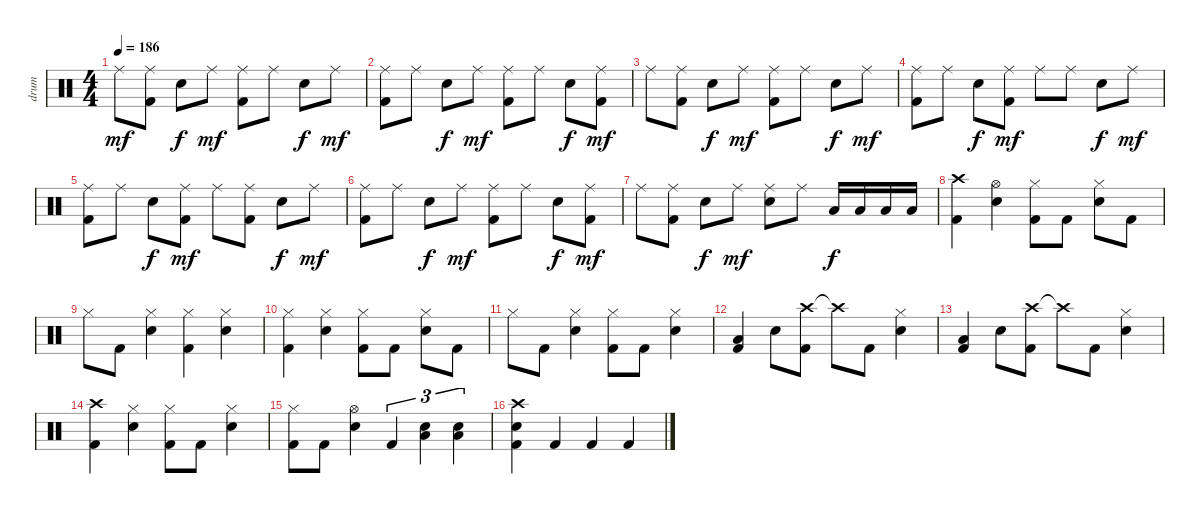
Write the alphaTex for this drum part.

\track ("drum" "drum") {instrument percussion}
\staff {score}
\articulation defaults
\ts (4 4)
\tempo 186
\clef neutral
\ks c "Ride (middle)".8{dy mf}
("Ride (middle)" "Kick (hit) 2").8 "Snare (hit) 2".8{dy f} "Ride (middle)".8{dy mf} ("Ride (middle)" "Kick (hit) 2").8 "Ride (middle)".8 "Snare (hit) 2".8{dy f} "Ride (middle)".8{dy mf} |
("Ride (middle)" "Kick (hit) 2").8 "Ride (middle)".8 "Snare (hit) 2".8{dy f} "Ride (middle)".8{dy mf} ("Ride (middle)" "Kick (hit) 2").8 "Ride (middle)".8 "Snare (hit) 2".8{dy f} ("Ride (middle)" "Kick (hit) 2").8{dy mf} |
"Ride (middle)".8 ("Ride (middle)" "Kick (hit) 2").8 "Snare (hit) 2".8{dy f} "Ride (middle)".8{dy mf} ("Ride (middle)" "Kick (hit) 2").8 "Ride (middle)".8 "Snare (hit) 2".8{dy f} "Ride (middle)".8{dy mf} |
("Ride (middle)" "Kick (hit) 2").8 "Ride (middle)".8 "Snare (hit) 2".8{dy f} ("Ride (middle)" "Kick (hit) 2").8{dy mf} "Ride (middle)".8 "Ride (middle)".8 "Snare (hit) 2".8{dy f} "Ride (middle)".8{dy mf} |
("Ride (middle)" "Kick (hit) 2").8 "Ride (middle)".8 "Snare (hit) 2".8{dy f} ("Ride (middle)" "Kick (hit) 2").8{dy mf} "Ride (middle)".8 ("Ride (middle)" "Kick (hit) 2").8 "Snare (hit) 2".8{dy f} "Ride (middle)".8{dy mf} |
("Ride (middle)" "Kick (hit) 2").8 "Ride (middle)".8 "Snare (hit) 2".8{dy f} "Ride (middle)".8{dy mf} ("Ride (middle)" "Kick (hit) 2").8 "Ride (middle)".8 "Snare (hit) 2".8{dy f} ("Ride (middle)" "Kick (hit) 2").8{dy mf} |
"Ride (middle)".8 ("Ride (middle)" "Kick (hit) 2").8 "Snare (hit) 2".8{dy f} "Ride (middle)".8{dy mf} ("Ride (middle)" "Snare (hit) 2").8 "Ride (middle)".8 "Low Floor Tom (hit)".16{dy f} "Low Floor Tom (hit)".16 "Low Floor Tom (hit)".16 "Low Floor Tom (hit)".16 |
("Crash high (hit)" "Kick (hit) 2").4 ("Hi-Hat (open)" "Snare (hit) 2").4 ("Hi-Hat (closed)" "Kick (hit) 2").8 "Kick (hit) 2".8 ("Hi-Hat (closed)" "Snare (hit) 2").8 "Kick (hit) 2".8 |
"Hi-Hat (closed)".8 "Kick (hit) 2".8 ("Hi-Hat (closed)" "Snare (hit) 2").4 ("Hi-Hat (closed)" "Kick (hit) 2").4 ("Hi-Hat (closed)" "Snare (hit) 2").4 |
("Hi-Hat (closed)" "Kick (hit) 2").4 ("Hi-Hat (closed)" "Snare (hit) 2").4 ("Hi-Hat (closed)" "Kick (hit) 2").8 "Kick (hit) 2".8 ("Hi-Hat (closed)" "Snare (hit) 2").8 "Kick (hit) 2".8 |
"Hi-Hat (closed)".8 "Kick (hit) 2".8 ("Hi-Hat (closed)" "Snare (hit) 2").4 ("Hi-Hat (closed)" "Kick (hit) 2").8 "Kick (hit) 2".8 ("Hi-Hat (closed)" "Snare (hit) 2").4 |
("Low Floor Tom (hit)" "Kick (hit) 2").4 "Snare (hit) 2".8 ("Crash high (hit)" "Kick (hit) 2").8 "Crash high (hit)"{t}.8 "Kick (hit) 2".8 ("Hi-Hat (closed)" "Snare (hit) 2").4 |
("Low Floor Tom (hit)" "Kick (hit) 2").4 "Snare (hit) 2".8 ("Crash high (hit)" "Kick (hit) 2").8 "Crash high (hit)"{t}.8 "Kick (hit) 2".8 ("Hi-Hat (closed)" "Snare (hit) 2").4 |
("Crash high (hit)" "Kick (hit) 2").4 ("Hi-Hat (closed)" "Snare (hit) 2").4 ("Hi-Hat (closed)" "Kick (hit) 2").8 "Kick (hit) 2".8 ("Hi-Hat (closed)" "Snare (hit) 2").4 |
("Hi-Hat (closed)" "Kick (hit) 2").8 "Kick (hit) 2".8 ("Hi-Hat (open)" "Snare (hit) 2").4 "Kick (hit) 2".4{tu (3 2)} ("Snare (hit) 2" "Low Floor Tom (hit)").4{tu (3 2)} ("Snare (hit) 2" "Low Floor Tom (hit)").4{tu (3 2)} |
("Crash high (hit)" "Snare (hit) 2" "Kick (hit) 2").4 "Kick (hit) 2".4 "Kick (hit) 2".4 "Kick (hit) 2".4
